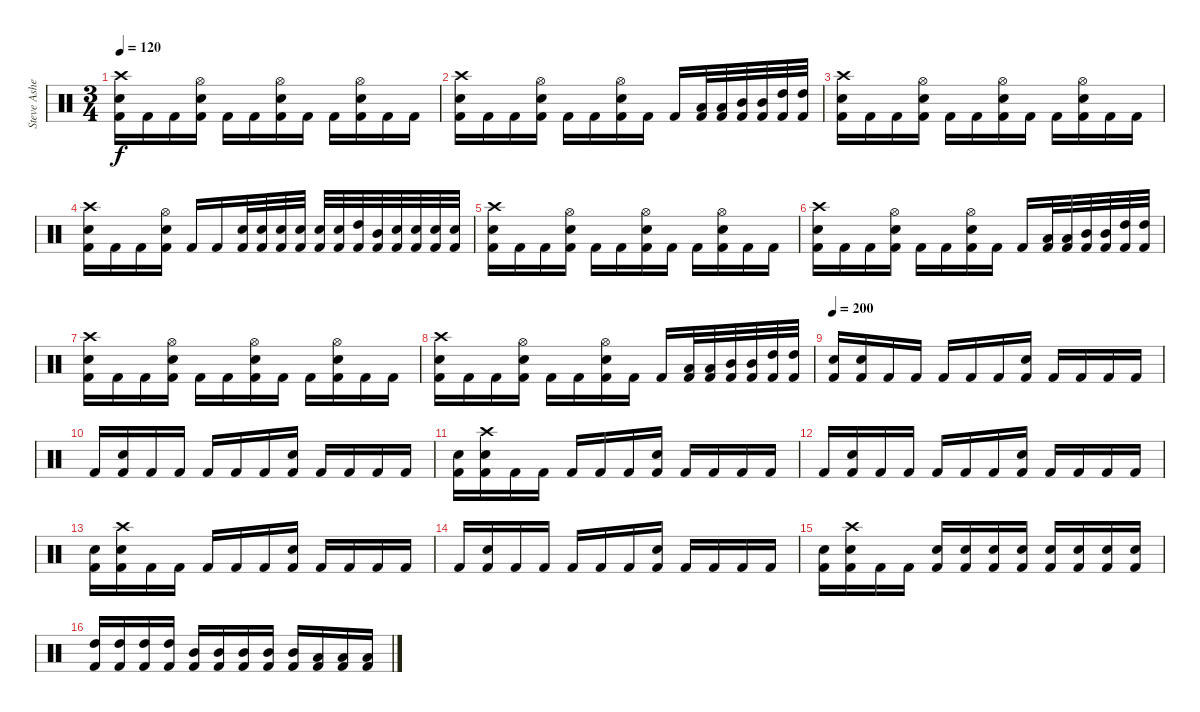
\track ("Steve Asheim" "Steve Ashe") {instrument percussion}
\staff {score}
\articulation defaults
\ts (3 4)
\tempo 120
\clef neutral
\ks c
("Crash high (hit)" "Electric Snare (hit)" "Kick (hit) 2").16{dy f} "Kick (hit) 2".16 "Kick (hit) 2".16 ("Hi-Hat (open)" "Electric Snare (hit)" "Kick (hit) 2").16 "Kick (hit) 2".16 "Kick (hit) 2".16 ("Hi-Hat (open)" "Electric Snare (hit)" "Kick (hit) 2").16 "Kick (hit) 2".16 "Kick (hit) 2".16 ("Hi-Hat (open)" "Electric Snare (hit)" "Kick (hit) 2").16 "Kick (hit) 2".16 "Kick (hit) 2".16 |
("Crash high (hit)" "Electric Snare (hit)" "Kick (hit) 2").16 "Kick (hit) 2".16 "Kick (hit) 2".16 ("Hi-Hat (open)" "Electric Snare (hit)" "Kick (hit) 2").16 "Kick (hit) 2".16 "Kick (hit) 2".16 ("Hi-Hat (open)" "Electric Snare (hit)" "Kick (hit) 2").16 "Kick (hit) 2".16 "Kick (hit) 2".16 ("Low Floor Tom (hit)" "Kick (hit) 2").32 ("Low Tom (hit)" "Kick (hit) 2").32 ("Mid Tom (hit)" "Kick (hit) 2").32 ("Mid Tom (hit)" "Kick (hit) 2").32 ("High Tom (hit)" "Kick (hit) 2").32 ("High Tom (hit)" "Kick (hit) 2").32 |
("Crash high (hit)" "Electric Snare (hit)" "Kick (hit) 2").16 "Kick (hit) 2".16 "Kick (hit) 2".16 ("Hi-Hat (open)" "Electric Snare (hit)" "Kick (hit) 2").16 "Kick (hit) 2".16 "Kick (hit) 2".16 ("Hi-Hat (open)" "Electric Snare (hit)" "Kick (hit) 2").16 "Kick (hit) 2".16 "Kick (hit) 2".16 ("Hi-Hat (open)" "Electric Snare (hit)" "Kick (hit) 2").16 "Kick (hit) 2".16 "Kick (hit) 2".16 |
("Crash high (hit)" "Electric Snare (hit)" "Kick (hit) 2").16 "Kick (hit) 2".16 "Kick (hit) 2".16 ("Hi-Hat (open)" "Electric Snare (hit)" "Kick (hit) 2").16 "Kick (hit) 2".16 "Kick (hit) 2".16 ("Electric Snare (hit)" "Kick (hit) 2").32 ("Electric Snare (hit)" "Kick (hit) 2").32 ("Electric Snare (hit)" "Kick (hit) 2").32 ("Electric Snare (hit)" "Kick (hit) 2").32 ("Electric Snare (hit)" "Kick (hit) 2").32 ("Electric Snare (hit)" "Kick (hit) 2").32 ("High Tom (hit)" "Kick (hit) 2").32 ("Mid Tom (hit)" "Kick (hit) 2").32 ("Electric Snare (hit)" "Kick (hit) 2").32 ("Electric Snare (hit)" "Kick (hit) 2").32 ("Electric Snare (hit)" "Kick (hit) 2").32 ("Electric Snare (hit)" "Kick (hit) 2").32 |
("Crash high (hit)" "Electric Snare (hit)" "Kick (hit) 2").16 "Kick (hit) 2".16 "Kick (hit) 2".16 ("Hi-Hat (open)" "Electric Snare (hit)" "Kick (hit) 2").16 "Kick (hit) 2".16 "Kick (hit) 2".16 ("Hi-Hat (open)" "Electric Snare (hit)" "Kick (hit) 2").16 "Kick (hit) 2".16 "Kick (hit) 2".16 ("Hi-Hat (open)" "Electric Snare (hit)" "Kick (hit) 2").16 "Kick (hit) 2".16 "Kick (hit) 2".16 |
("Crash high (hit)" "Electric Snare (hit)" "Kick (hit) 2").16 "Kick (hit) 2".16 "Kick (hit) 2".16 ("Hi-Hat (open)" "Electric Snare (hit)" "Kick (hit) 2").16 "Kick (hit) 2".16 "Kick (hit) 2".16 ("Hi-Hat (open)" "Electric Snare (hit)" "Kick (hit) 2").16 "Kick (hit) 2".16 "Kick (hit) 2".16 ("Low Floor Tom (hit)" "Kick (hit) 2").32 ("Low Tom (hit)" "Kick (hit) 2").32 ("Mid Tom (hit)" "Kick (hit) 2").32 ("Mid Tom (hit)" "Kick (hit) 2").32 ("High Tom (hit)" "Kick (hit) 2").32 ("High Tom (hit)" "Kick (hit) 2").32 |
("Crash high (hit)" "Electric Snare (hit)" "Kick (hit) 2").16 "Kick (hit) 2".16 "Kick (hit) 2".16 ("Hi-Hat (open)" "Electric Snare (hit)" "Kick (hit) 2").16 "Kick (hit) 2".16 "Kick (hit) 2".16 ("Hi-Hat (open)" "Electric Snare (hit)" "Kick (hit) 2").16 "Kick (hit) 2".16 "Kick (hit) 2".16 ("Hi-Hat (open)" "Electric Snare (hit)" "Kick (hit) 2").16 "Kick (hit) 2".16 "Kick (hit) 2".16 |
("Crash high (hit)" "Electric Snare (hit)" "Kick (hit) 2").16 "Kick (hit) 2".16 "Kick (hit) 2".16 ("Hi-Hat (open)" "Electric Snare (hit)" "Kick (hit) 2").16 "Kick (hit) 2".16 "Kick (hit) 2".16 ("Hi-Hat (open)" "Electric Snare (hit)" "Kick (hit) 2").16 "Kick (hit) 2".16 "Kick (hit) 2".16 ("Low Floor Tom (hit)" "Kick (hit) 2").32 ("Low Tom (hit)" "Kick (hit) 2").32 ("Mid Tom (hit)" "Kick (hit) 2").32 ("Mid Tom (hit)" "Kick (hit) 2").32 ("High Tom (hit)" "Kick (hit) 2").32 ("High Tom (hit)" "Kick (hit) 2").32 |
\tempo 200
("Electric Snare (hit)" "Kick (hit) 2").16 ("Electric Snare (hit)" "Kick (hit) 2").16 "Kick (hit) 2".16 "Kick (hit) 2".16 "Kick (hit) 2".16 "Kick (hit) 2".16 "Kick (hit) 2".16 ("Electric Snare (hit)" "Kick (hit) 2").16 "Kick (hit) 2".16 "Kick (hit) 2".16 "Kick (hit) 2".16 "Kick (hit) 2".16 |
"Kick (hit) 2".16 ("Electric Snare (hit)" "Kick (hit) 2").16 "Kick (hit) 2".16 "Kick (hit) 2".16 "Kick (hit) 2".16 "Kick (hit) 2".16 "Kick (hit) 2".16 ("Electric Snare (hit)" "Kick (hit) 2").16 "Kick (hit) 2".16 "Kick (hit) 2".16 "Kick (hit) 2".16 "Kick (hit) 2".16 |
("Electric Snare (hit)" "Kick (hit) 2").16 ("Crash high (hit)" "Electric Snare (hit)" "Kick (hit) 2").16 "Kick (hit) 2".16 "Kick (hit) 2".16 "Kick (hit) 2".16 "Kick (hit) 2".16 "Kick (hit) 2".16 ("Electric Snare (hit)" "Kick (hit) 2").16 "Kick (hit) 2".16 "Kick (hit) 2".16 "Kick (hit) 2".16 "Kick (hit) 2".16 |
"Kick (hit) 2".16 ("Electric Snare (hit)" "Kick (hit) 2").16 "Kick (hit) 2".16 "Kick (hit) 2".16 "Kick (hit) 2".16 "Kick (hit) 2".16 "Kick (hit) 2".16 ("Electric Snare (hit)" "Kick (hit) 2").16 "Kick (hit) 2".16 "Kick (hit) 2".16 "Kick (hit) 2".16 "Kick (hit) 2".16 |
("Electric Snare (hit)" "Kick (hit) 2").16 ("Crash high (hit)" "Electric Snare (hit)" "Kick (hit) 2").16 "Kick (hit) 2".16 "Kick (hit) 2".16 "Kick (hit) 2".16 "Kick (hit) 2".16 "Kick (hit) 2".16 ("Electric Snare (hit)" "Kick (hit) 2").16 "Kick (hit) 2".16 "Kick (hit) 2".16 "Kick (hit) 2".16 "Kick (hit) 2".16 |
"Kick (hit) 2".16 ("Electric Snare (hit)" "Kick (hit) 2").16 "Kick (hit) 2".16 "Kick (hit) 2".16 "Kick (hit) 2".16 "Kick (hit) 2".16 "Kick (hit) 2".16 ("Electric Snare (hit)" "Kick (hit) 2").16 "Kick (hit) 2".16 "Kick (hit) 2".16 "Kick (hit) 2".16 "Kick (hit) 2".16 |
("Electric Snare (hit)" "Kick (hit) 2").16 ("Crash high (hit)" "Electric Snare (hit)" "Kick (hit) 2").16 "Kick (hit) 2".16 "Kick (hit) 2".16 ("Electric Snare (hit)" "Kick (hit) 2").16 ("Snare (hit) 2" "Kick (hit) 2").16 ("Snare (hit) 2" "Kick (hit) 2").16 ("Snare (hit) 2" "Kick (hit) 2").16 ("Snare (hit) 2" "Kick (hit) 2").16 ("Snare (hit) 2" "Kick (hit) 2").16 ("Snare (hit) 2" "Kick (hit) 2").16 ("Snare (hit) 2" "Kick (hit) 2").16 |
("High Tom (hit)" "Kick (hit) 2").16 ("High Tom (hit)" "Kick (hit) 2").16 ("High Tom (hit)" "Kick (hit) 2").16 ("High Tom (hit)" "Kick (hit) 2").16 ("Mid Tom (hit)" "Kick (hit) 2").16 ("Mid Tom (hit)" "Kick (hit) 2").16 ("Mid Tom (hit)" "Kick (hit) 2").16 ("Mid Tom (hit)" "Kick (hit) 2").16 ("Mid Tom (hit)" "Kick (hit) 2").16 ("Low Tom (hit)" "Kick (hit) 2").16 ("Low Tom (hit)" "Kick (hit) 2").16 ("Low Tom (hit)" "Kick (hit) 2").16
